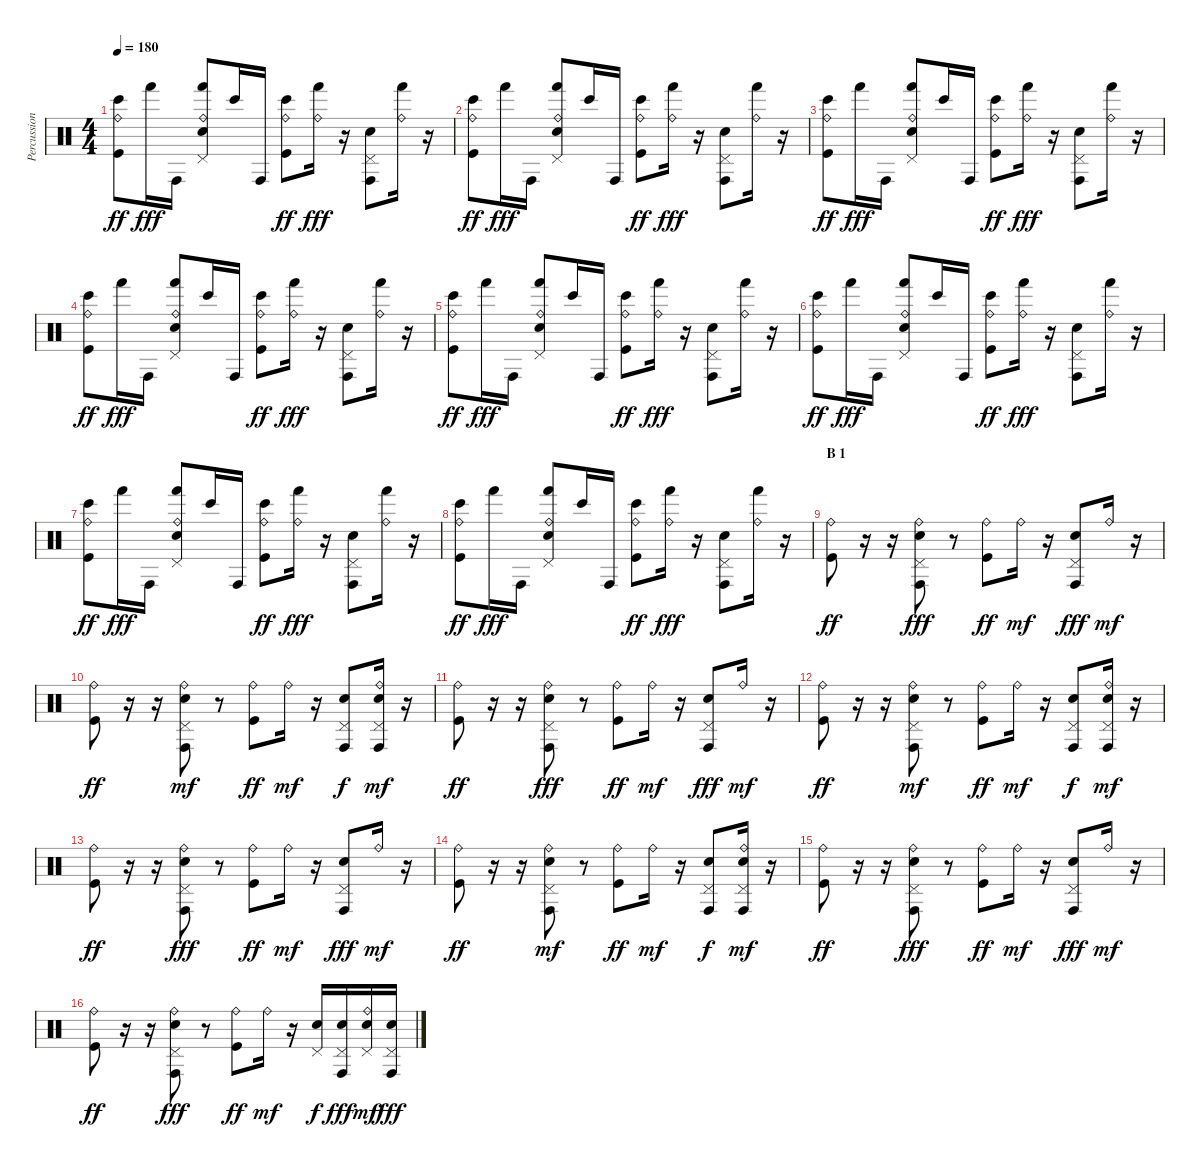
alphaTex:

\track ("Percussion" "Percussion") {instrument percussion}
\staff {score}
\articulation defaults
\ts (4 4)
\tempo 180
\clef neutral
\ks c
("Ride (bell)" "Bongo High (hit)" "Kick (hit)").8{dy ff} "Hand (hit)".16{dy fff} "Conga high (hit)".16 ("Ride (bell)" "Pedal Hi-Hat (hit)" "Hand (hit)" "Electric Snare (hit)").8 "Bongo High (hit)".16 "Conga high (hit)".16 ("Ride (bell)" "Bongo High (hit)" "Kick (hit)").8{dy ff} ("Ride (bell)" "Hand (hit)").16{dy fff} r.16 ("Pedal Hi-Hat (hit)" "Conga high (hit)" "Electric Snare (hit)").8 ("Ride (bell)" "Hand (hit)").16 r.16 |
("Ride (bell)" "Bongo High (hit)" "Kick (hit)").8{dy ff} "Hand (hit)".16{dy fff} "Conga high (hit)".16 ("Ride (bell)" "Pedal Hi-Hat (hit)" "Hand (hit)" "Electric Snare (hit)").8 "Bongo High (hit)".16 "Conga high (hit)".16 ("Ride (bell)" "Bongo High (hit)" "Kick (hit)").8{dy ff} ("Ride (bell)" "Hand (hit)").16{dy fff} r.16 ("Pedal Hi-Hat (hit)" "Conga high (hit)" "Electric Snare (hit)").8 ("Ride (bell)" "Hand (hit)").16 r.16 |
("Ride (bell)" "Bongo High (hit)" "Kick (hit)").8{dy ff} "Hand (hit)".16{dy fff} "Conga high (hit)".16 ("Ride (bell)" "Pedal Hi-Hat (hit)" "Hand (hit)" "Electric Snare (hit)").8 "Bongo High (hit)".16 "Conga high (hit)".16 ("Ride (bell)" "Bongo High (hit)" "Kick (hit)").8{dy ff} ("Ride (bell)" "Hand (hit)").16{dy fff} r.16 ("Pedal Hi-Hat (hit)" "Conga high (hit)" "Electric Snare (hit)").8 ("Ride (bell)" "Hand (hit)").16 r.16 |
("Ride (bell)" "Bongo High (hit)" "Kick (hit)").8{dy ff} "Hand (hit)".16{dy fff} "Conga high (hit)".16 ("Ride (bell)" "Pedal Hi-Hat (hit)" "Hand (hit)" "Electric Snare (hit)").8 "Bongo High (hit)".16 "Conga high (hit)".16 ("Ride (bell)" "Bongo High (hit)" "Kick (hit)").8{dy ff} ("Ride (bell)" "Hand (hit)").16{dy fff} r.16 ("Pedal Hi-Hat (hit)" "Conga high (hit)" "Electric Snare (hit)").8 ("Ride (bell)" "Hand (hit)").16 r.16 |
("Ride (bell)" "Bongo High (hit)" "Kick (hit)").8{dy ff} "Hand (hit)".16{dy fff} "Conga high (hit)".16 ("Ride (bell)" "Pedal Hi-Hat (hit)" "Hand (hit)" "Electric Snare (hit)").8 "Bongo High (hit)".16 "Conga high (hit)".16 ("Ride (bell)" "Bongo High (hit)" "Kick (hit)").8{dy ff} ("Ride (bell)" "Hand (hit)").16{dy fff} r.16 ("Pedal Hi-Hat (hit)" "Conga high (hit)" "Electric Snare (hit)").8 ("Ride (bell)" "Hand (hit)").16 r.16 |
("Ride (bell)" "Bongo High (hit)" "Kick (hit)").8{dy ff} "Hand (hit)".16{dy fff} "Conga high (hit)".16 ("Ride (bell)" "Pedal Hi-Hat (hit)" "Hand (hit)" "Electric Snare (hit)").8 "Bongo High (hit)".16 "Conga high (hit)".16 ("Ride (bell)" "Bongo High (hit)" "Kick (hit)").8{dy ff} ("Ride (bell)" "Hand (hit)").16{dy fff} r.16 ("Pedal Hi-Hat (hit)" "Conga high (hit)" "Electric Snare (hit)").8 ("Ride (bell)" "Hand (hit)").16 r.16 |
("Ride (bell)" "Bongo High (hit)" "Kick (hit)").8{dy ff} "Hand (hit)".16{dy fff} "Conga high (hit)".16 ("Ride (bell)" "Pedal Hi-Hat (hit)" "Hand (hit)" "Electric Snare (hit)").8 "Bongo High (hit)".16 "Conga high (hit)".16 ("Ride (bell)" "Bongo High (hit)" "Kick (hit)").8{dy ff} ("Ride (bell)" "Hand (hit)").16{dy fff} r.16 ("Pedal Hi-Hat (hit)" "Conga high (hit)" "Electric Snare (hit)").8 ("Ride (bell)" "Hand (hit)").16 r.16 |
("Ride (bell)" "Bongo High (hit)" "Kick (hit)").8{dy ff} "Hand (hit)".16{dy fff} "Conga high (hit)".16 ("Ride (bell)" "Pedal Hi-Hat (hit)" "Hand (hit)" "Electric Snare (hit)").8 "Bongo High (hit)".16 "Conga high (hit)".16 ("Ride (bell)" "Bongo High (hit)" "Kick (hit)").8{dy ff} ("Ride (bell)" "Hand (hit)").16{dy fff} r.16 ("Pedal Hi-Hat (hit)" "Conga high (hit)" "Electric Snare (hit)").8 ("Ride (bell)" "Hand (hit)").16 r.16 |
\section ("" "B 1")
("Ride (bell)" "Kick (hit)").8{dy ff} r.16 r.16 ("Ride (bell)" "Pedal Hi-Hat (hit)" "Conga high (hit)" "Electric Snare (hit)").8{dy fff} r.8 ("Ride (bell)" "Kick (hit)").8{dy ff} "Ride (bell)".16{dy mf} r.16 ("Pedal Hi-Hat (hit)" "Conga high (hit)" "Electric Snare (hit)").8{dy fff} "Ride (bell)".16{dy mf} r.16 |
("Ride (bell)" "Kick (hit)").8{dy ff} r.16 r.16 ("Ride (bell)" "Pedal Hi-Hat (hit)" "Conga high (hit)" "Electric Snare (hit)").8{dy mf} r.8 ("Ride (bell)" "Kick (hit)").8{dy ff} "Ride (bell)".16{dy mf} r.16 ("Pedal Hi-Hat (hit)" "Conga high (hit)" "Electric Snare (hit)").8{dy f} ("Ride (bell)" "Pedal Hi-Hat (hit)" "Conga high (hit)" "Electric Snare (hit)").16{dy mf} r.16 |
("Ride (bell)" "Kick (hit)").8{dy ff} r.16 r.16 ("Ride (bell)" "Pedal Hi-Hat (hit)" "Conga high (hit)" "Electric Snare (hit)").8{dy fff} r.8 ("Ride (bell)" "Kick (hit)").8{dy ff} "Ride (bell)".16{dy mf} r.16 ("Pedal Hi-Hat (hit)" "Conga high (hit)" "Electric Snare (hit)").8{dy fff} "Ride (bell)".16{dy mf} r.16 |
("Ride (bell)" "Kick (hit)").8{dy ff} r.16 r.16 ("Ride (bell)" "Pedal Hi-Hat (hit)" "Conga high (hit)" "Electric Snare (hit)").8{dy mf} r.8 ("Ride (bell)" "Kick (hit)").8{dy ff} "Ride (bell)".16{dy mf} r.16 ("Pedal Hi-Hat (hit)" "Conga high (hit)" "Electric Snare (hit)").8{dy f} ("Ride (bell)" "Pedal Hi-Hat (hit)" "Conga high (hit)" "Electric Snare (hit)").16{dy mf} r.16 |
("Ride (bell)" "Kick (hit)").8{dy ff} r.16 r.16 ("Ride (bell)" "Pedal Hi-Hat (hit)" "Conga high (hit)" "Electric Snare (hit)").8{dy fff} r.8 ("Ride (bell)" "Kick (hit)").8{dy ff} "Ride (bell)".16{dy mf} r.16 ("Pedal Hi-Hat (hit)" "Conga high (hit)" "Electric Snare (hit)").8{dy fff} "Ride (bell)".16{dy mf} r.16 |
("Ride (bell)" "Kick (hit)").8{dy ff} r.16 r.16 ("Ride (bell)" "Pedal Hi-Hat (hit)" "Conga high (hit)" "Electric Snare (hit)").8{dy mf} r.8 ("Ride (bell)" "Kick (hit)").8{dy ff} "Ride (bell)".16{dy mf} r.16 ("Pedal Hi-Hat (hit)" "Conga high (hit)" "Electric Snare (hit)").8{dy f} ("Ride (bell)" "Pedal Hi-Hat (hit)" "Conga high (hit)" "Electric Snare (hit)").16{dy mf} r.16 |
("Ride (bell)" "Kick (hit)").8{dy ff} r.16 r.16 ("Ride (bell)" "Pedal Hi-Hat (hit)" "Conga high (hit)" "Electric Snare (hit)").8{dy fff} r.8 ("Ride (bell)" "Kick (hit)").8{dy ff} "Ride (bell)".16{dy mf} r.16 ("Pedal Hi-Hat (hit)" "Conga high (hit)" "Electric Snare (hit)").8{dy fff} "Ride (bell)".16{dy mf} r.16 |
("Ride (bell)" "Kick (hit)").8{dy ff} r.16 r.16 ("Ride (bell)" "Pedal Hi-Hat (hit)" "Conga high (hit)" "Electric Snare (hit)").8{dy fff} r.8 ("Ride (bell)" "Kick (hit)").8{dy ff} "Ride (bell)".16{dy mf} r.16 ("Pedal Hi-Hat (hit)" "Electric Snare (hit)").16{dy f} ("Pedal Hi-Hat (hit)" "Conga high (hit)" "Electric Snare (hit)").16{dy fff} ("Ride (bell)" "Pedal Hi-Hat (hit)" "Electric Snare (hit)").16{dy mf} ("Pedal Hi-Hat (hit)" "Conga high (hit)" "Electric Snare (hit)").16{dy fff}
